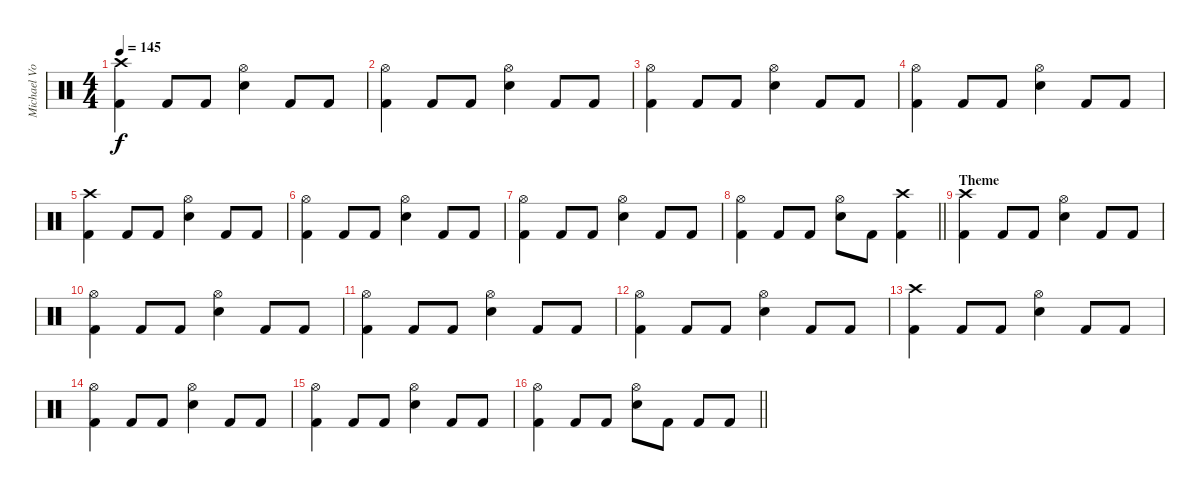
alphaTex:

\track ("Michael Von Knorring" "Michael Vo") {instrument percussion}
\staff {score}
\articulation defaults
\ts (4 4)
\tempo 145
\clef neutral
\ks c
("Crash high (hit)" "Kick (hit) 2").4{dy f} "Kick (hit) 2".8 "Kick (hit) 2".8 ("Hi-Hat (open)" "Snare (hit) 2").4 "Kick (hit) 2".8 "Kick (hit) 2".8 |
("Hi-Hat (open)" "Kick (hit) 2").4 "Kick (hit) 2".8 "Kick (hit) 2".8 ("Hi-Hat (open)" "Snare (hit) 2").4 "Kick (hit) 2".8 "Kick (hit) 2".8 |
("Hi-Hat (open)" "Kick (hit) 2").4 "Kick (hit) 2".8 "Kick (hit) 2".8 ("Hi-Hat (open)" "Snare (hit) 2").4 "Kick (hit) 2".8 "Kick (hit) 2".8 |
("Hi-Hat (open)" "Kick (hit) 2").4 "Kick (hit) 2".8 "Kick (hit) 2".8 ("Hi-Hat (open)" "Snare (hit) 2").4 "Kick (hit) 2".8 "Kick (hit) 2".8 |
("Crash high (hit)" "Kick (hit) 2").4 "Kick (hit) 2".8 "Kick (hit) 2".8 ("Hi-Hat (open)" "Snare (hit) 2").4 "Kick (hit) 2".8 "Kick (hit) 2".8 |
("Hi-Hat (open)" "Kick (hit) 2").4 "Kick (hit) 2".8 "Kick (hit) 2".8 ("Hi-Hat (open)" "Snare (hit) 2").4 "Kick (hit) 2".8 "Kick (hit) 2".8 |
("Hi-Hat (open)" "Kick (hit) 2").4 "Kick (hit) 2".8 "Kick (hit) 2".8 ("Hi-Hat (open)" "Snare (hit) 2").4 "Kick (hit) 2".8 "Kick (hit) 2".8 |
\barLineRight lightlight
("Hi-Hat (open)" "Kick (hit) 2").4 "Kick (hit) 2".8 "Kick (hit) 2".8 ("Hi-Hat (open)" "Snare (hit) 2").8 "Kick (hit) 2".8 ("Crash high (hit)" "Kick (hit) 2").4 |
\section ("" "Theme")
("Crash high (hit)" "Kick (hit) 2").4 "Kick (hit) 2".8 "Kick (hit) 2".8 ("Hi-Hat (open)" "Snare (hit) 2").4 "Kick (hit) 2".8 "Kick (hit) 2".8 |
("Hi-Hat (open)" "Kick (hit) 2").4 "Kick (hit) 2".8 "Kick (hit) 2".8 ("Hi-Hat (open)" "Snare (hit) 2").4 "Kick (hit) 2".8 "Kick (hit) 2".8 |
("Hi-Hat (open)" "Kick (hit) 2").4 "Kick (hit) 2".8 "Kick (hit) 2".8 ("Hi-Hat (open)" "Snare (hit) 2").4 "Kick (hit) 2".8 "Kick (hit) 2".8 |
("Hi-Hat (open)" "Kick (hit) 2").4 "Kick (hit) 2".8 "Kick (hit) 2".8 ("Hi-Hat (open)" "Snare (hit) 2").4 "Kick (hit) 2".8 "Kick (hit) 2".8 |
("Crash high (hit)" "Kick (hit) 2").4 "Kick (hit) 2".8 "Kick (hit) 2".8 ("Hi-Hat (open)" "Snare (hit) 2").4 "Kick (hit) 2".8 "Kick (hit) 2".8 |
("Hi-Hat (open)" "Kick (hit) 2").4 "Kick (hit) 2".8 "Kick (hit) 2".8 ("Hi-Hat (open)" "Snare (hit) 2").4 "Kick (hit) 2".8 "Kick (hit) 2".8 |
("Hi-Hat (open)" "Kick (hit) 2").4 "Kick (hit) 2".8 "Kick (hit) 2".8 ("Hi-Hat (open)" "Snare (hit) 2").4 "Kick (hit) 2".8 "Kick (hit) 2".8 |
\barLineRight lightlight
("Hi-Hat (open)" "Kick (hit) 2").4 "Kick (hit) 2".8 "Kick (hit) 2".8 ("Hi-Hat (open)" "Snare (hit) 2").8 "Kick (hit) 2".8 "Kick (hit) 2".8 "Kick (hit) 2".8
